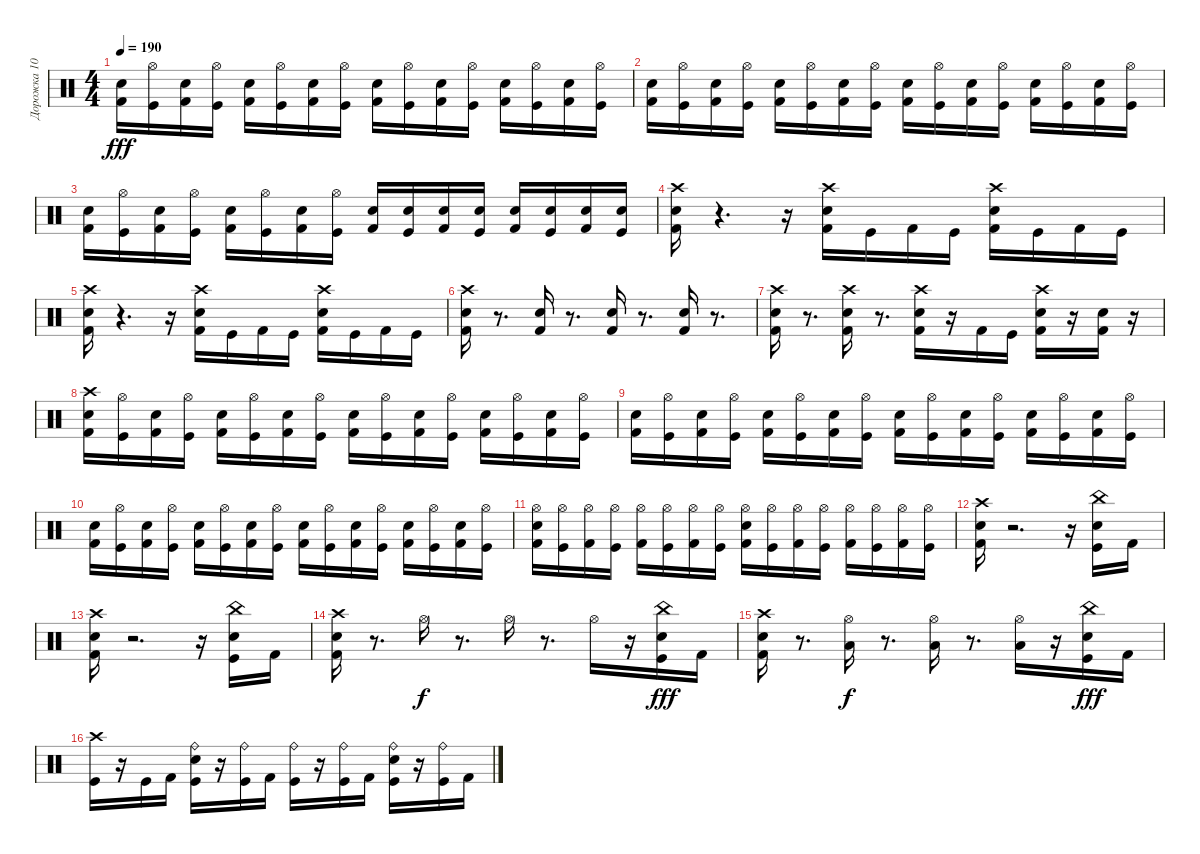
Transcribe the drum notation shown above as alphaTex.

\track ("Дорожка 10" "Дорожка 10") {instrument percussion}
\staff {score}
\articulation defaults
\ts (4 4)
\tempo 190
\clef neutral
\ks c
("Electric Snare (hit)" "Kick (hit) 2").16{dy fff} ("Hi-Hat (open)" "Kick (hit)").16 ("Electric Snare (hit)" "Kick (hit) 2").16 ("Kick (hit)" "Hi-Hat (open)").16 ("Electric Snare (hit)" "Kick (hit) 2").16 ("Kick (hit)" "Hi-Hat (open)").16 ("Electric Snare (hit)" "Kick (hit) 2").16 ("Hi-Hat (open)" "Kick (hit)").16 ("Kick (hit) 2" "Electric Snare (hit)").16 ("Kick (hit)" "Hi-Hat (open)").16 ("Kick (hit) 2" "Electric Snare (hit)").16 ("Kick (hit)" "Hi-Hat (open)").16 ("Kick (hit) 2" "Electric Snare (hit)").16 ("Hi-Hat (open)" "Kick (hit)").16 ("Electric Snare (hit)" "Kick (hit) 2").16 ("Hi-Hat (open)" "Kick (hit)").16 |
("Electric Snare (hit)" "Kick (hit) 2").16 ("Hi-Hat (open)" "Kick (hit)").16 ("Electric Snare (hit)" "Kick (hit) 2").16 ("Kick (hit)" "Hi-Hat (open)").16 ("Electric Snare (hit)" "Kick (hit) 2").16 ("Kick (hit)" "Hi-Hat (open)").16 ("Electric Snare (hit)" "Kick (hit) 2").16 ("Hi-Hat (open)" "Kick (hit)").16 ("Kick (hit) 2" "Electric Snare (hit)").16 ("Kick (hit)" "Hi-Hat (open)").16 ("Kick (hit) 2" "Electric Snare (hit)").16 ("Hi-Hat (open)" "Kick (hit)").16 ("Kick (hit) 2" "Electric Snare (hit)").16 ("Hi-Hat (open)" "Kick (hit)").16 ("Electric Snare (hit)" "Kick (hit) 2").16 ("Hi-Hat (open)" "Kick (hit)").16 |
("Kick (hit) 2" "Electric Snare (hit)").16 ("Kick (hit)" "Hi-Hat (open)").16 ("Electric Snare (hit)" "Kick (hit) 2").16 ("Kick (hit)" "Hi-Hat (open)").16 ("Electric Snare (hit)" "Kick (hit) 2").16 ("Hi-Hat (open)" "Kick (hit)").16 ("Electric Snare (hit)" "Kick (hit) 2").16 ("Kick (hit)" "Hi-Hat (open)").16 ("Electric Snare (hit)" "Kick (hit) 2").16 ("Electric Snare (hit)" "Kick (hit)").16 ("Electric Snare (hit)" "Kick (hit) 2").16 ("Electric Snare (hit)" "Kick (hit)").16 ("Electric Snare (hit)" "Kick (hit) 2").16 ("Kick (hit)" "Electric Snare (hit)").16 ("Electric Snare (hit)" "Kick (hit) 2").16 ("Kick (hit)" "Electric Snare (hit)").16 |
("Kick (hit) 2" "Electric Snare (hit)" "Crash high (hit)").16 r.4{d} r.16 ("Kick (hit) 2" "Crash high (hit)" "Electric Snare (hit)").16 "Kick (hit)".16 "Kick (hit) 2".16 "Kick (hit)".16 ("Electric Snare (hit)" "Crash high (hit)" "Kick (hit) 2").16 "Kick (hit)".16 "Kick (hit) 2".16 "Kick (hit)".16 |
("Electric Snare (hit)" "Crash high (hit)" "Kick (hit) 2").16 r.4{d} r.16 ("Crash high (hit)" "Kick (hit) 2" "Electric Snare (hit)").16 "Kick (hit)".16 "Kick (hit) 2".16 "Kick (hit)".16 ("Crash high (hit)" "Electric Snare (hit)" "Kick (hit) 2").16 "Kick (hit)".16 "Kick (hit) 2".16 "Kick (hit)".16 |
("Crash high (hit)" "Kick (hit) 2" "Electric Snare (hit)").16 r.8{d} ("Kick (hit) 2" "Electric Snare (hit)").16 r.8{d} ("Electric Snare (hit)" "Kick (hit) 2").16 r.8{d} ("Kick (hit) 2" "Electric Snare (hit)").16 r.8{d} |
("Crash high (hit)" "Electric Snare (hit)" "Kick (hit) 2").16 r.8{d} ("Crash high (hit)" "Electric Snare (hit)" "Kick (hit) 2").16 r.8{d} ("Kick (hit) 2" "Crash high (hit)" "Electric Snare (hit)").16 r.16 "Kick (hit) 2".16 "Kick (hit)".16 ("Kick (hit) 2" "Electric Snare (hit)" "Crash high (hit)").16 r.16 ("Electric Snare (hit)" "Kick (hit) 2").16 r.16 |
("Electric Snare (hit)" "Crash high (hit)" "Kick (hit) 2").16 ("Hi-Hat (open)" "Kick (hit)").16 ("Kick (hit) 2" "Electric Snare (hit)").16 ("Hi-Hat (open)" "Kick (hit)").16 ("Kick (hit) 2" "Electric Snare (hit)").16 ("Hi-Hat (open)" "Kick (hit)").16 ("Kick (hit) 2" "Electric Snare (hit)").16 ("Kick (hit)" "Hi-Hat (open)").16 ("Kick (hit) 2" "Electric Snare (hit)").16 ("Kick (hit)" "Hi-Hat (open)").16 ("Kick (hit) 2" "Electric Snare (hit)").16 ("Kick (hit)" "Hi-Hat (open)").16 ("Kick (hit) 2" "Electric Snare (hit)").16 ("Hi-Hat (open)" "Kick (hit)").16 ("Electric Snare (hit)" "Kick (hit) 2").16 ("Hi-Hat (open)" "Kick (hit)").16 |
("Kick (hit) 2" "Electric Snare (hit)").16 ("Kick (hit)" "Hi-Hat (open)").16 ("Electric Snare (hit)" "Kick (hit) 2").16 ("Hi-Hat (open)" "Kick (hit)").16 ("Electric Snare (hit)" "Kick (hit) 2").16 ("Hi-Hat (open)" "Kick (hit)").16 ("Kick (hit) 2" "Electric Snare (hit)").16 ("Hi-Hat (open)" "Kick (hit)").16 ("Kick (hit) 2" "Electric Snare (hit)").16 ("Hi-Hat (open)" "Kick (hit)").16 ("Kick (hit) 2" "Electric Snare (hit)").16 ("Hi-Hat (open)" "Kick (hit)").16 ("Kick (hit) 2" "Electric Snare (hit)").16 ("Kick (hit)" "Hi-Hat (open)").16 ("Kick (hit) 2" "Electric Snare (hit)").16 ("Hi-Hat (open)" "Kick (hit)").16 |
("Electric Snare (hit)" "Kick (hit) 2").16 ("Kick (hit)" "Hi-Hat (open)").16 ("Kick (hit) 2" "Electric Snare (hit)").16 ("Kick (hit)" "Hi-Hat (open)").16 ("Kick (hit) 2" "Electric Snare (hit)").16 ("Hi-Hat (open)" "Kick (hit)").16 ("Electric Snare (hit)" "Kick (hit) 2").16 ("Hi-Hat (open)" "Kick (hit)").16 ("Electric Snare (hit)" "Kick (hit) 2").16 ("Hi-Hat (open)" "Kick (hit)").16 ("Electric Snare (hit)" "Kick (hit) 2").16 ("Kick (hit)" "Hi-Hat (open)").16 ("Electric Snare (hit)" "Kick (hit) 2").16 ("Hi-Hat (open)" "Kick (hit)").16 ("Kick (hit) 2" "Electric Snare (hit)").16 ("Kick (hit)" "Hi-Hat (open)").16 |
("Kick (hit) 2" "Electric Snare (hit)" "Hi-Hat (open)").16 ("Kick (hit)" "Hi-Hat (open)").16 ("Hi-Hat (open)" "Kick (hit) 2").16 ("Kick (hit)" "Hi-Hat (open)").16 ("Hi-Hat (open)" "Kick (hit) 2").16 ("Kick (hit)" "Hi-Hat (open)").16 ("Hi-Hat (open)" "Kick (hit) 2").16 ("Hi-Hat (open)" "Kick (hit)").16 ("Electric Snare (hit)" "Hi-Hat (open)" "Kick (hit) 2").16 ("Hi-Hat (open)" "Kick (hit)").16 ("Hi-Hat (open)" "Kick (hit) 2").16 ("Hi-Hat (open)" "Kick (hit)").16 ("Hi-Hat (open)" "Kick (hit) 2").16 ("Hi-Hat (open)" "Kick (hit)").16 ("Hi-Hat (open)" "Kick (hit) 2").16 ("Hi-Hat (open)" "Kick (hit)").16 |
("Electric Snare (hit)" "Kick (hit) 2" "Crash high (hit)").16 r.2{d} r.16 ("Kick (hit)" "China (hit)" "Electric Snare (hit)").16 "Kick (hit) 2".16 |
("Kick (hit) 2" "Electric Snare (hit)" "Crash high (hit)").16 r.2{d} r.16 ("China (hit)" "Electric Snare (hit)" "Kick (hit)").16 "Kick (hit) 2".16 |
("Electric Snare (hit)" "Kick (hit) 2" "Crash high (hit)").16 r.8{d} "Hi-Hat (open)".16{dy f} r.8{d} "Hi-Hat (open)".16 r.8{d} "Hi-Hat (open)".16 r.16 ("China (hit)" "Electric Snare (hit)" "Kick (hit)").16{dy fff} "Kick (hit) 2".16 |
("Kick (hit) 2" "Crash high (hit)" "Electric Snare (hit)").16 r.8{d} ("Low Floor Tom (hit)" "Hi-Hat (open)").16{dy f} r.8{d} ("Hi-Hat (open)" "Low Floor Tom (hit)").16 r.8{d} ("Low Floor Tom (hit)" "Hi-Hat (open)").16 r.16 ("Electric Snare (hit)" "China (hit)" "Kick (hit)").16{dy fff} "Kick (hit) 2".16 |
("Kick (hit)" "Crash high (hit)").16 r.16 "Kick (hit)".16 "Kick (hit) 2".16 ("Kick (hit)" "Ride (bell)" "Electric Snare (hit)").16 r.16 ("Kick (hit)" "Ride (bell)").16 "Kick (hit) 2".16 ("Ride (bell)" "Kick (hit)").16 r.16 ("Kick (hit)" "Ride (bell)").16 "Kick (hit) 2".16 ("Electric Snare (hit)" "Kick (hit)" "Ride (bell)").16 r.16 ("Ride (bell)" "Kick (hit)").16 "Kick (hit) 2".16
